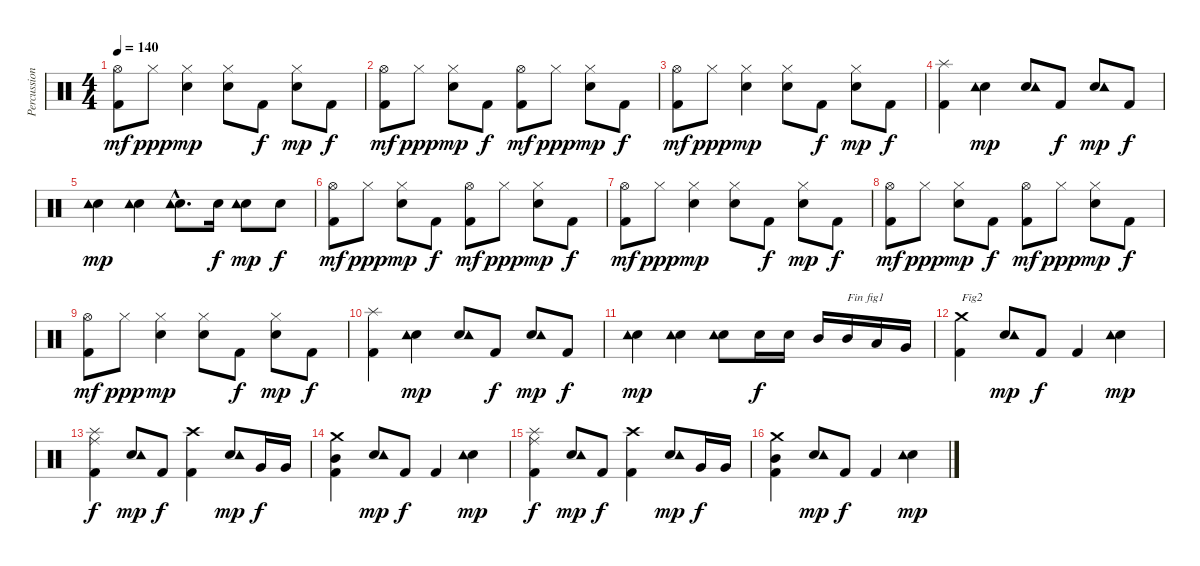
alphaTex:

\track ("Percussions" "Percussion") {instrument percussion}
\staff {score}
\articulation defaults
\ts (4 4)
\tempo 140
\clef neutral
\ks c
("Kick (hit) 2" "Hi-Hat (open)").8{dy mf} "Hi-Hat (closed)".8{dy ppp} ("Electric Snare (hit)" "Hi-Hat (closed)").4{dy mp} ("Electric Snare (hit)" "Hi-Hat (closed)").8 "Kick (hit) 2".8{dy f} ("Electric Snare (hit)" "Hi-Hat (closed)").8{dy mp} "Kick (hit) 2".8{dy f} |
("Kick (hit) 2" "Hi-Hat (open)").8{dy mf} "Hi-Hat (closed)".8{dy ppp} ("Electric Snare (hit)" "Hi-Hat (closed)").8{dy mp} "Kick (hit) 2".8{dy f} ("Kick (hit) 2" "Hi-Hat (open)").8{dy mf} "Hi-Hat (closed)".8{dy ppp} ("Electric Snare (hit)" "Hi-Hat (closed)").8{dy mp} "Kick (hit) 2".8{dy f} |
("Kick (hit) 2" "Hi-Hat (open)").8{dy mf} "Hi-Hat (closed)".8{dy ppp} ("Electric Snare (hit)" "Hi-Hat (closed)").4{dy mp} ("Electric Snare (hit)" "Hi-Hat (closed)").8 "Kick (hit) 2".8{dy f} ("Electric Snare (hit)" "Hi-Hat (closed)").8{dy mp} "Kick (hit) 2".8{dy f} |
("Kick (hit) 2" "Splash (hit)").4 ("Electric Snare (hit)" "Tambourine (hit)").4{dy mp} ("Electric Snare (hit)" "Tambourine (hit)").8 "Kick (hit) 2".8{dy f} ("Electric Snare (hit)" "Tambourine (hit)").8{dy mp} "Kick (hit) 2".8{dy f} |
("Electric Snare (hit)" "Tambourine (hit)").4{dy mp} ("Electric Snare (hit)" "Tambourine (hit)").4 ("Electric Snare (hit)"{hac} "Tambourine (hit)"{hac}).8{d} "Electric Snare (hit)".16{dy f} ("Electric Snare (hit)" "Tambourine (hit)").8{dy mp} "Electric Snare (hit)".8{dy f} |
("Kick (hit) 2" "Hi-Hat (open)").8{dy mf} "Hi-Hat (closed)".8{dy ppp} ("Electric Snare (hit)" "Hi-Hat (closed)").8{dy mp} "Kick (hit) 2".8{dy f} ("Kick (hit) 2" "Hi-Hat (open)").8{dy mf} "Hi-Hat (closed)".8{dy ppp} ("Electric Snare (hit)" "Hi-Hat (closed)").8{dy mp} "Kick (hit) 2".8{dy f} |
("Kick (hit) 2" "Hi-Hat (open)").8{dy mf} "Hi-Hat (closed)".8{dy ppp} ("Electric Snare (hit)" "Hi-Hat (closed)").4{dy mp} ("Electric Snare (hit)" "Hi-Hat (closed)").8 "Kick (hit) 2".8{dy f} ("Electric Snare (hit)" "Hi-Hat (closed)").8{dy mp} "Kick (hit) 2".8{dy f} |
("Kick (hit) 2" "Hi-Hat (open)").8{dy mf} "Hi-Hat (closed)".8{dy ppp} ("Electric Snare (hit)" "Hi-Hat (closed)").8{dy mp} "Kick (hit) 2".8{dy f} ("Kick (hit) 2" "Hi-Hat (open)").8{dy mf} "Hi-Hat (closed)".8{dy ppp} ("Electric Snare (hit)" "Hi-Hat (closed)").8{dy mp} "Kick (hit) 2".8{dy f} |
("Kick (hit) 2" "Hi-Hat (open)").8{dy mf} "Hi-Hat (closed)".8{dy ppp} ("Electric Snare (hit)" "Hi-Hat (closed)").4{dy mp} ("Electric Snare (hit)" "Hi-Hat (closed)").8 "Kick (hit) 2".8{dy f} ("Electric Snare (hit)" "Hi-Hat (closed)").8{dy mp} "Kick (hit) 2".8{dy f} |
("Kick (hit) 2" "Splash (hit)").4 ("Electric Snare (hit)" "Tambourine (hit)").4{dy mp} ("Electric Snare (hit)" "Tambourine (hit)").8 "Kick (hit) 2".8{dy f} ("Electric Snare (hit)" "Tambourine (hit)").8{dy mp} "Kick (hit) 2".8{dy f} |
("Electric Snare (hit)" "Tambourine (hit)").4{dy mp} ("Electric Snare (hit)" "Tambourine (hit)").4 ("Electric Snare (hit)" "Tambourine (hit)").8 "Electric Snare (hit)".16{dy f} "Electric Snare (hit)".16 "Mid Tom (hit)".16 "Mid Tom (hit)".16{txt "Fin fig1"} "Low Tom (hit)".16 "Very Low Tom (hit)".16 |
("Kick (hit) 2" "Crash medium (hit)").4{txt "Fig2"} ("Electric Snare (hit)" "Tambourine (hit)").8{dy mp} "Kick (hit) 2".8{dy f} "Kick (hit) 2".4 ("Electric Snare (hit)" "Tambourine (hit)").4{dy mp} |
("Kick (hit) 2" "Ride (middle)" "Splash (hit)").4{dy f} ("Electric Snare (hit)" "Tambourine (hit)").8{dy mp} "Kick (hit) 2".8{dy f} ("Kick (hit) 2" "Crash high (hit)").4 ("Electric Snare (hit)" "Tambourine (hit)").8{dy mp} "Very Low Tom (hit)".16{dy f} "Very Low Tom (hit)".16 |
("Kick (hit) 2" "Mid Tom (hit)" "Crash medium (hit)").4 ("Electric Snare (hit)" "Tambourine (hit)").8{dy mp} "Kick (hit) 2".8{dy f} "Kick (hit) 2".4 ("Electric Snare (hit)" "Tambourine (hit)").4{dy mp} |
("Kick (hit) 2" "Ride (middle)" "Splash (hit)").4{dy f} ("Electric Snare (hit)" "Tambourine (hit)").8{dy mp} "Kick (hit) 2".8{dy f} ("Kick (hit) 2" "Crash high (hit)").4 ("Electric Snare (hit)" "Tambourine (hit)").8{dy mp} "Very Low Tom (hit)".16{dy f} "Very Low Tom (hit)".16 |
("Kick (hit) 2" "Mid Tom (hit)" "Crash medium (hit)").4 ("Electric Snare (hit)" "Tambourine (hit)").8{dy mp} "Kick (hit) 2".8{dy f} "Kick (hit) 2".4 ("Electric Snare (hit)" "Tambourine (hit)").4{dy mp}
